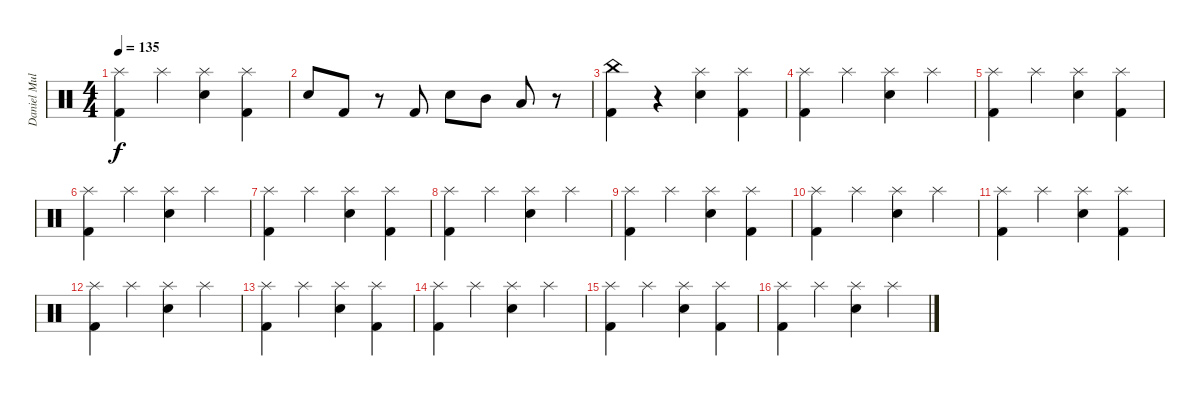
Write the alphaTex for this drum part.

\track ("Daniel Mullback" "Daniel Mul") {instrument percussion}
\staff {score}
\articulation defaults
\ts (4 4)
\tempo 135
\clef neutral
\ks c
("Splash (hit)" "Kick (hit) 2").4{dy f} "Splash (hit)".4 ("Splash (hit)" "Snare (hit) 2").4 ("Splash (hit)" "Kick (hit) 2").4 |
"Snare (hit) 2".8 "Kick (hit) 2".8 r.8 "Kick (hit) 2".8 "Snare (hit) 2".8 "Mid Tom (hit)".8 "Low Tom (hit)".8 r.8 |
("China (hit)" "Kick (hit) 2").4 r.4 ("Splash (hit)" "Snare (hit) 2").4 ("Splash (hit)" "Kick (hit) 2").4 |
("Splash (hit)" "Kick (hit) 2").4 "Splash (hit)".4 ("Splash (hit)" "Snare (hit) 2").4 "Splash (hit)".4 |
("Splash (hit)" "Kick (hit) 2").4 "Splash (hit)".4 ("Splash (hit)" "Snare (hit) 2").4 ("Splash (hit)" "Kick (hit) 2").4 |
("Splash (hit)" "Kick (hit) 2").4 "Splash (hit)".4 ("Splash (hit)" "Snare (hit) 2").4 "Splash (hit)".4 |
("Splash (hit)" "Kick (hit) 2").4 "Splash (hit)".4 ("Splash (hit)" "Snare (hit) 2").4 ("Splash (hit)" "Kick (hit) 2").4 |
("Splash (hit)" "Kick (hit) 2").4 "Splash (hit)".4 ("Splash (hit)" "Snare (hit) 2").4 "Splash (hit)".4 |
("Splash (hit)" "Kick (hit) 2").4 "Splash (hit)".4 ("Splash (hit)" "Snare (hit) 2").4 ("Splash (hit)" "Kick (hit) 2").4 |
("Splash (hit)" "Kick (hit) 2").4 "Splash (hit)".4 ("Splash (hit)" "Snare (hit) 2").4 "Splash (hit)".4 |
("Splash (hit)" "Kick (hit) 2").4 "Splash (hit)".4 ("Splash (hit)" "Snare (hit) 2").4 ("Splash (hit)" "Kick (hit) 2").4 |
("Splash (hit)" "Kick (hit) 2").4 "Splash (hit)".4 ("Splash (hit)" "Snare (hit) 2").4 "Splash (hit)".4 |
("Splash (hit)" "Kick (hit) 2").4 "Splash (hit)".4 ("Splash (hit)" "Snare (hit) 2").4 ("Splash (hit)" "Kick (hit) 2").4 |
("Splash (hit)" "Kick (hit) 2").4 "Splash (hit)".4 ("Splash (hit)" "Snare (hit) 2").4 "Splash (hit)".4 |
("Splash (hit)" "Kick (hit) 2").4 "Splash (hit)".4 ("Splash (hit)" "Snare (hit) 2").4 ("Splash (hit)" "Kick (hit) 2").4 |
("Splash (hit)" "Kick (hit) 2").4 "Splash (hit)".4 ("Splash (hit)" "Snare (hit) 2").4 "Splash (hit)".4
